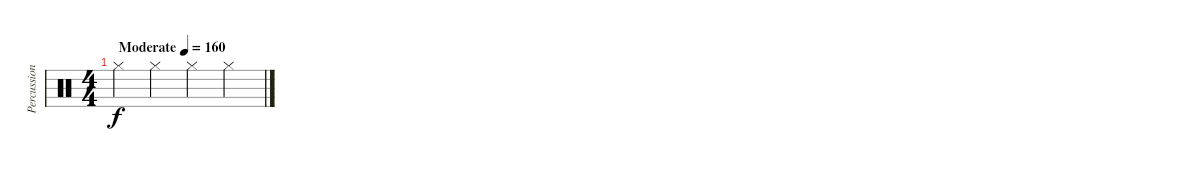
\track ("Percussion" "Percussion") {instrument percussion}
\staff {score}
\articulation defaults
\ts (4 4)
\tempo (160 "Moderate")
\clef neutral
\ks c "Hi-Hat (closed)".4{dy f} "Hi-Hat (closed)".4 "Hi-Hat (closed)".4 "Hi-Hat (closed)".4
